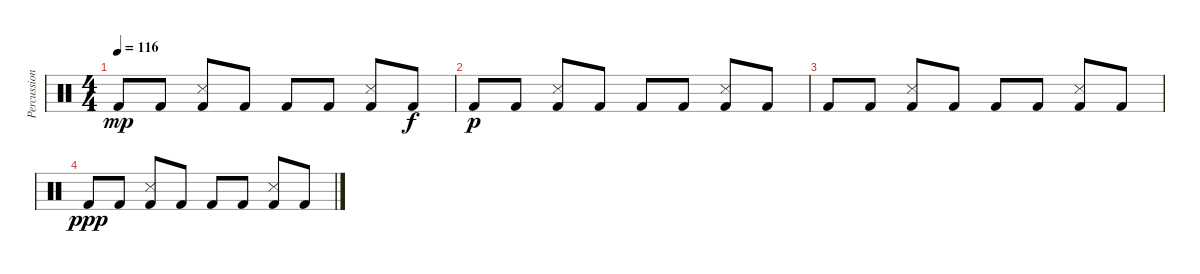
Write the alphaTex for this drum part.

\track ("Percussion" "Percussion") {instrument percussion}
\staff {score}
\articulation defaults
\ts (4 4)
\tempo 116
\clef neutral
\ks c "Kick (hit) 2".8{dy mp} "Kick (hit) 2".8
("Snare (side stick) 3" "Kick (hit) 2").8 "Kick (hit) 2".8 "Kick (hit) 2".8 "Kick (hit) 2".8 ("Snare (side stick) 3" "Kick (hit) 2").8 "Kick (hit) 2".8{dy f} |
"Kick (hit) 2".8{dy p} "Kick (hit) 2".8 ("Snare (side stick) 3" "Kick (hit) 2").8 "Kick (hit) 2".8 "Kick (hit) 2".8 "Kick (hit) 2".8 ("Snare (side stick) 3" "Kick (hit) 2").8 "Kick (hit) 2".8 |
"Kick (hit) 2".8 "Kick (hit) 2".8 ("Snare (side stick) 3" "Kick (hit) 2").8 "Kick (hit) 2".8 "Kick (hit) 2".8 "Kick (hit) 2".8 ("Snare (side stick) 3" "Kick (hit) 2").8 "Kick (hit) 2".8 |
"Kick (hit) 2".8{dy ppp} "Kick (hit) 2".8 ("Snare (side stick) 3" "Kick (hit) 2").8 "Kick (hit) 2".8 "Kick (hit) 2".8 "Kick (hit) 2".8 ("Snare (side stick) 3" "Kick (hit) 2").8 "Kick (hit) 2".8
